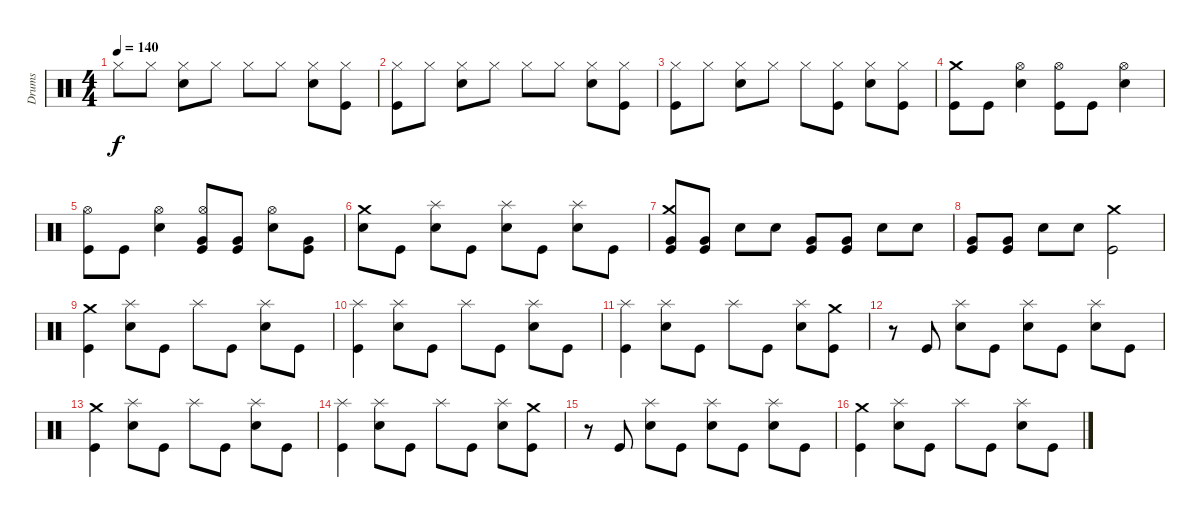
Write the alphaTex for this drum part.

\track ("Drums" "Drums") {instrument percussion}
\staff {score}
\articulation defaults
\ts (4 4)
\tempo 140
\clef neutral
\ks c "Hi-Hat (closed)".8{dy f} "Hi-Hat (closed)".8
("Hi-Hat (closed)" "Electric Snare (hit)").8 "Hi-Hat (closed)".8 "Hi-Hat (closed)".8 "Hi-Hat (closed)".8 ("Hi-Hat (closed)" "Electric Snare (hit)").8 ("Hi-Hat (closed)" "Kick (hit)").8 |
("Hi-Hat (closed)" "Kick (hit)").8 "Hi-Hat (closed)".8 ("Hi-Hat (closed)" "Electric Snare (hit)").8 "Hi-Hat (closed)".8 "Hi-Hat (closed)".8 "Hi-Hat (closed)".8 ("Hi-Hat (closed)" "Electric Snare (hit)").8 ("Hi-Hat (closed)" "Kick (hit)").8 |
("Hi-Hat (closed)" "Kick (hit)").8 "Hi-Hat (closed)".8 ("Hi-Hat (closed)" "Electric Snare (hit)").8 "Hi-Hat (closed)".8 "Hi-Hat (closed)".8 ("Hi-Hat (closed)" "Kick (hit)").8 ("Hi-Hat (closed)" "Electric Snare (hit)").8 ("Hi-Hat (closed)" "Kick (hit)").8 |
("Crash medium (hit)" "Kick (hit)").8 "Kick (hit)".8 ("Hi-Hat (open)" "Electric Snare (hit)").4 ("Hi-Hat (open)" "Kick (hit)").8 "Kick (hit)".8 ("Hi-Hat (open)" "Electric Snare (hit)").4 |
("Hi-Hat (open)" "Kick (hit)").8 "Kick (hit)".8 ("Hi-Hat (open)" "Electric Snare (hit)").4 ("Hi-Hat (open)" "Very Low Tom (hit)" "Kick (hit)").8 ("Very Low Tom (hit)" "Kick (hit)").8 ("Hi-Hat (open)" "Electric Snare (hit)").8 ("Very Low Tom (hit)" "Kick (hit)").8 |
("Crash medium (hit)" "Electric Snare (hit)").8 "Kick (hit)".8 ("Splash (hit)" "Electric Snare (hit)").8 "Kick (hit)".8 ("Splash (hit)" "Electric Snare (hit)").8 "Kick (hit)".8 ("Splash (hit)" "Electric Snare (hit)").8 "Kick (hit)".8 |
("Crash medium (hit)" "Very Low Tom (hit)" "Kick (hit)").8 ("Very Low Tom (hit)" "Kick (hit)").8 "Electric Snare (hit)".8 "Electric Snare (hit)".8 ("Very Low Tom (hit)" "Kick (hit)").8 ("Very Low Tom (hit)" "Kick (hit)").8 "Electric Snare (hit)".8 "Electric Snare (hit)".8 |
("Very Low Tom (hit)" "Kick (hit)").8 ("Very Low Tom (hit)" "Kick (hit)").8 "Electric Snare (hit)".8 "Electric Snare (hit)".8 ("Crash medium (hit)" "Kick (hit)").2 |
("Crash medium (hit)" "Kick (hit)").4 ("Splash (hit)" "Electric Snare (hit)").8 "Kick (hit)".8 "Splash (hit)".8 "Kick (hit)".8 ("Splash (hit)" "Electric Snare (hit)").8 "Kick (hit)".8 |
("Splash (hit)" "Kick (hit)").4 ("Splash (hit)" "Electric Snare (hit)").8 "Kick (hit)".8 "Splash (hit)".8 "Kick (hit)".8 ("Splash (hit)" "Electric Snare (hit)").8 "Kick (hit)".8 |
("Splash (hit)" "Kick (hit)").4 ("Splash (hit)" "Electric Snare (hit)").8 "Kick (hit)".8 "Splash (hit)".8 "Kick (hit)".8 ("Splash (hit)" "Electric Snare (hit)").8 ("Crash medium (hit)" "Kick (hit)").8 |
r.8 "Kick (hit)".8 ("Splash (hit)" "Electric Snare (hit)").8 "Kick (hit)".8 ("Splash (hit)" "Electric Snare (hit)").8 "Kick (hit)".8 ("Splash (hit)" "Electric Snare (hit)").8 "Kick (hit)".8 |
("Crash medium (hit)" "Kick (hit)").4 ("Splash (hit)" "Electric Snare (hit)").8 "Kick (hit)".8 "Splash (hit)".8 "Kick (hit)".8 ("Splash (hit)" "Electric Snare (hit)").8 "Kick (hit)".8 |
("Splash (hit)" "Kick (hit)").4 ("Splash (hit)" "Electric Snare (hit)").8 "Kick (hit)".8 "Splash (hit)".8 "Kick (hit)".8 ("Splash (hit)" "Electric Snare (hit)").8 ("Crash medium (hit)" "Kick (hit)").8 |
r.8 "Kick (hit)".8 ("Splash (hit)" "Electric Snare (hit)").8 "Kick (hit)".8 ("Splash (hit)" "Electric Snare (hit)").8 "Kick (hit)".8 ("Splash (hit)" "Electric Snare (hit)").8 "Kick (hit)".8 |
("Crash medium (hit)" "Kick (hit)").4 ("Splash (hit)" "Electric Snare (hit)").8 "Kick (hit)".8 "Splash (hit)".8 "Kick (hit)".8 ("Splash (hit)" "Electric Snare (hit)").8 "Kick (hit)".8
